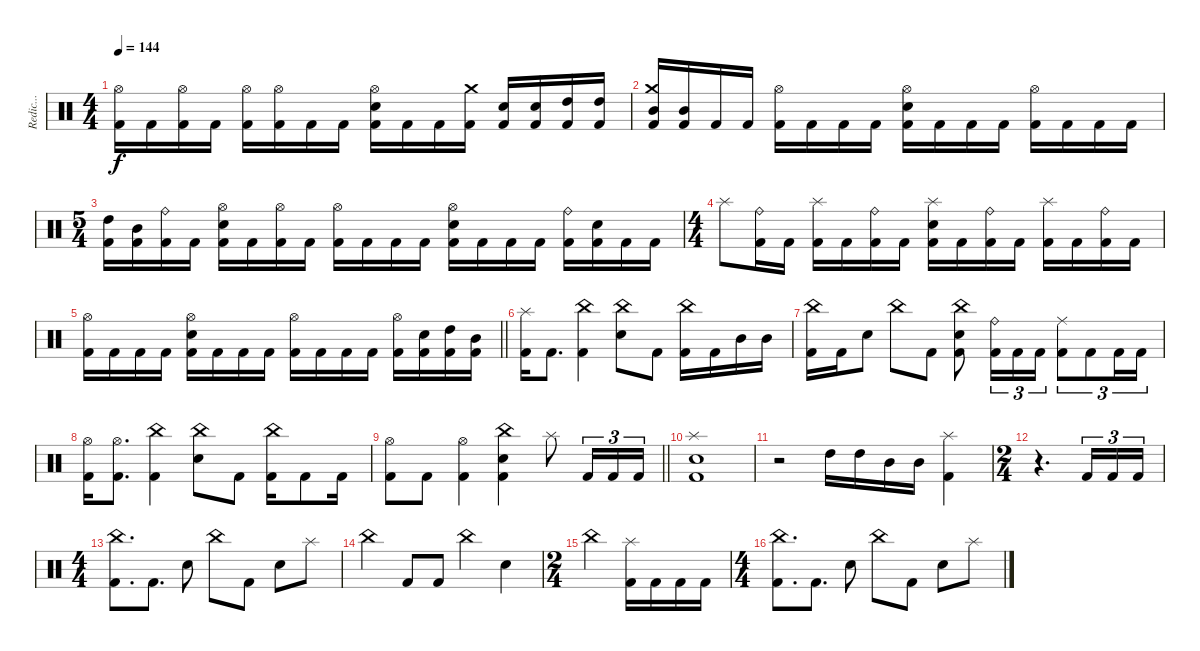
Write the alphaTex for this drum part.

\track ("Redic..." "Redic...") {instrument percussion}
\staff {score}
\articulation defaults
\ts (4 4)
\tempo 144
\clef neutral
\ks c
("Hi-Hat (open)" "Kick (hit) 2").16{dy f} "Kick (hit) 2".16 ("Hi-Hat (open)" "Kick (hit) 2").16 "Kick (hit) 2".16 ("Hi-Hat (open)" "Kick (hit) 2").16 ("Hi-Hat (open)" "Kick (hit) 2").16 "Kick (hit) 2".16 "Kick (hit) 2".16 ("Hi-Hat (open)" "Electric Snare (hit)" "Kick (hit) 2").16 "Kick (hit) 2".16 "Kick (hit) 2".16 ("Crash medium (hit)" "Kick (hit) 2").16 ("Electric Snare (hit)" "Kick (hit) 2").16 ("Electric Snare (hit)" "Kick (hit) 2").16 ("High Tom (hit)" "Kick (hit) 2").16 ("High Tom (hit)" "Kick (hit) 2").16 |
("Crash medium (hit)" "Mid Tom (hit)" "Kick (hit) 2").16 ("Mid Tom (hit)" "Kick (hit) 2").16 "Kick (hit) 2".16 "Kick (hit) 2".16 ("Hi-Hat (open)" "Kick (hit) 2").16 "Kick (hit) 2".16 "Kick (hit) 2".16 "Kick (hit) 2".16 ("Hi-Hat (open)" "Electric Snare (hit)" "Kick (hit) 2").16 "Kick (hit) 2".16 "Kick (hit) 2".16 "Kick (hit) 2".16 ("Hi-Hat (open)" "Kick (hit) 2").16 "Kick (hit) 2".16 "Kick (hit) 2".16 "Kick (hit) 2".16 |
\ts (5 4)
("High Tom (hit)" "Kick (hit) 2").16 ("Mid Tom (hit)" "Kick (hit) 2").16 ("Ride (bell)" "Kick (hit) 2").16 "Kick (hit) 2".16 ("Hi-Hat (open)" "Electric Snare (hit)" "Kick (hit) 2").16 "Kick (hit) 2".16 ("Hi-Hat (open)" "Kick (hit) 2").16 "Kick (hit) 2".16 ("Hi-Hat (open)" "Kick (hit) 2").16 "Kick (hit) 2".16 "Kick (hit) 2".16 "Kick (hit) 2".16 ("Hi-Hat (open)" "Electric Snare (hit)" "Kick (hit) 2").16 "Kick (hit) 2".16 "Kick (hit) 2".16 "Kick (hit) 2".16 ("Ride (bell)" "Kick (hit) 2").16 ("Electric Snare (hit)" "Kick (hit) 2").16 "Kick (hit) 2".16 "Kick (hit) 2".16 |
\ts (4 4)
"Splash (hit)".8 ("Ride (bell)" "Kick (hit) 2").16 "Kick (hit) 2".16 ("Splash (hit)" "Kick (hit) 2").16 "Kick (hit) 2".16 ("Ride (bell)" "Kick (hit) 2").16 "Kick (hit) 2".16 ("Splash (hit)" "Electric Snare (hit)" "Kick (hit) 2").16 "Kick (hit) 2".16 ("Ride (bell)" "Kick (hit) 2").16 "Kick (hit) 2".16 ("Splash (hit)" "Kick (hit) 2").16 "Kick (hit) 2".16 ("Ride (bell)" "Kick (hit) 2").16 "Kick (hit) 2".16 |
\barLineRight lightlight
("Hi-Hat (open)" "Kick (hit) 2").16 "Kick (hit) 2".16 "Kick (hit) 2".16 "Kick (hit) 2".16 ("Hi-Hat (open)" "Electric Snare (hit)" "Kick (hit) 2").16 "Kick (hit) 2".16 "Kick (hit) 2".16 "Kick (hit) 2".16 ("Hi-Hat (open)" "Kick (hit) 2").16 "Kick (hit) 2".16 "Kick (hit) 2".16 "Kick (hit) 2".16 ("Hi-Hat (open)" "Kick (hit) 2").16 ("Electric Snare (hit)" "Kick (hit) 2").16 ("High Tom (hit)" "Kick (hit) 2").16 ("Mid Tom (hit)" "Kick (hit) 2").16 |
\section ("" "")
("Splash (hit)" "Kick (hit) 2").16 "Kick (hit) 2".8{d} ("China (hit)" "Kick (hit) 2").4 ("China (hit)" "Electric Snare (hit)").8 "Kick (hit) 2".8 ("China (hit)" "Kick (hit) 2").16 "Kick (hit) 2".16 "Mid Tom (hit)".16 "Mid Tom (hit)".16 |
("China (hit)" "Kick (hit) 2").16 "Kick (hit) 2".16 "Electric Snare (hit)".8 "China (hit)".8 "Kick (hit) 2".8 ("China (hit)" "Electric Snare (hit)" "Kick (hit) 2").8 ("Ride (bell)" "Kick (hit) 2").16{tu (3 2)} "Kick (hit) 2".16{tu (3 2)} "Kick (hit) 2".16{tu (3 2)} ("Ride (middle)" "Kick (hit) 2").8{tu (3 2)} "Kick (hit) 2".8{tu (3 2)} "Kick (hit) 2".16{tu (3 2)} "Kick (hit) 2".16{tu (3 2)} |
("Hi-Hat (open)" "Kick (hit) 2").16 ("Hi-Hat (open)" "Kick (hit) 2").8{d} ("China (hit)" "Kick (hit) 2").4 ("China (hit)" "Electric Snare (hit)").8 "Kick (hit) 2".8 ("China (hit)" "Kick (hit) 2").16 "Kick (hit) 2".8 "Kick (hit) 2".16 |
\barLineRight lightlight
("Hi-Hat (open)" "Kick (hit) 2").8 "Kick (hit) 2".8 ("Hi-Hat (open)" "Kick (hit) 2").4 ("China (hit)" "Electric Snare (hit)" "Kick (hit) 2").4 "Splash (hit)".8 "Kick (hit) 2".16{tu (3 2)} "Kick (hit) 2".16{tu (3 2)} "Kick (hit) 2".16{tu (3 2)} |
\section ("" "")
("Splash (hit)" "Electric Snare (hit)" "Kick (hit) 2").1 |
r.2 "High Tom (hit)".16 "High Tom (hit)".16 "Mid Tom (hit)".16 "Mid Tom (hit)".16 ("Splash (hit)" "Kick (hit) 2").4 |
\ts (2 4)
r.4{d} "Kick (hit) 2".16{tu (3 2)} "Kick (hit) 2".16{tu (3 2)} "Kick (hit) 2".16{tu (3 2)} |
\ts (4 4)
("China (hit)" "Kick (hit) 2").8{d} "Kick (hit) 2".8{d} "Electric Snare (hit)".8 "China (hit)".8 "Kick (hit) 2".8 "Electric Snare (hit)".8 "Splash (hit)".8 |
"China (hit)".4 "Kick (hit) 2".8 "Kick (hit) 2".8 "China (hit)".4 "Electric Snare (hit)".4 |
\ts (2 4)
"China (hit)".4 ("Splash (hit)" "Kick (hit) 2").16 "Kick (hit) 2".16 "Kick (hit) 2".16 "Kick (hit) 2".16 |
\ts (4 4)
("China (hit)" "Kick (hit) 2").8{d} "Kick (hit) 2".8{d} "Electric Snare (hit)".8 "China (hit)".8 "Kick (hit) 2".8 "Electric Snare (hit)".8 "Splash (hit)".8
